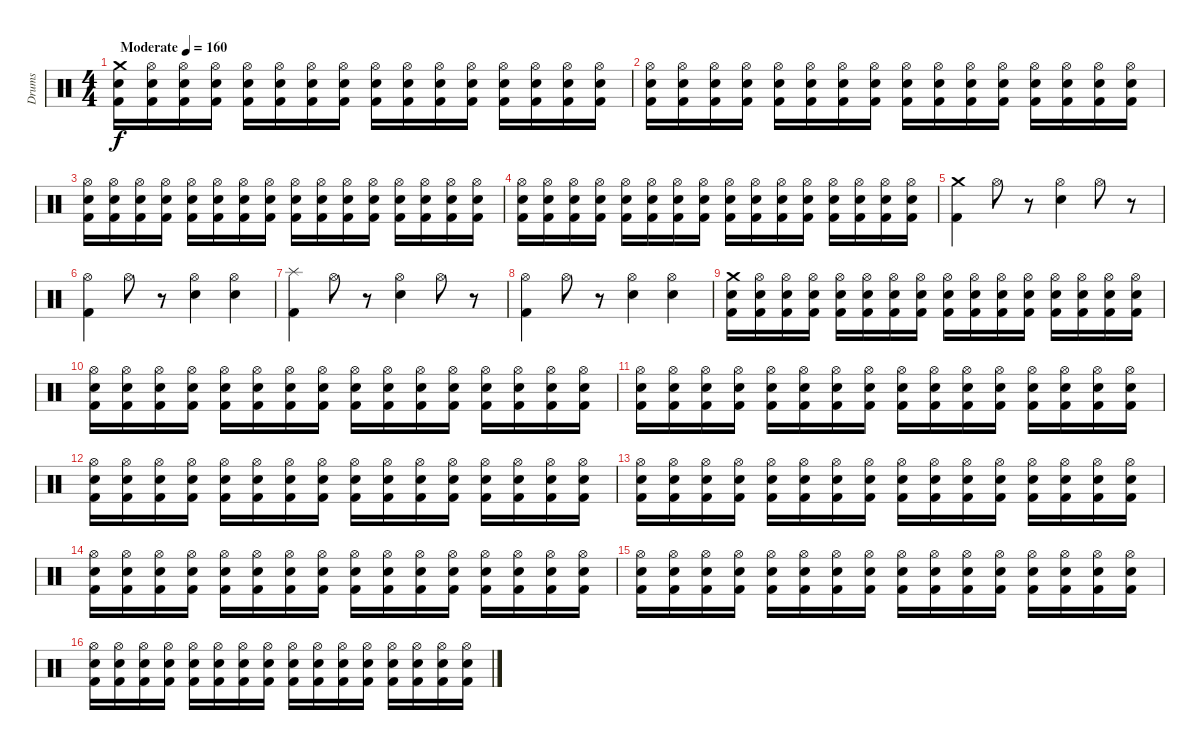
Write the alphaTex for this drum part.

\track ("Drums" "Drums") {instrument percussion}
\staff {score}
\articulation defaults
\ts (4 4)
\tempo (160 "Moderate")
\clef neutral
\ks c
("Crash medium (hit)" "Electric Snare (hit)" "Kick (hit) 2").16{dy f} ("Hi-Hat (open)" "Electric Snare (hit)" "Kick (hit) 2").16 ("Hi-Hat (open)" "Electric Snare (hit)" "Kick (hit) 2").16 ("Hi-Hat (open)" "Electric Snare (hit)" "Kick (hit) 2").16 ("Hi-Hat (open)" "Electric Snare (hit)" "Kick (hit) 2").16 ("Hi-Hat (open)" "Electric Snare (hit)" "Kick (hit) 2").16 ("Hi-Hat (open)" "Electric Snare (hit)" "Kick (hit) 2").16 ("Hi-Hat (open)" "Electric Snare (hit)" "Kick (hit) 2").16 ("Hi-Hat (open)" "Electric Snare (hit)" "Kick (hit) 2").16 ("Hi-Hat (open)" "Electric Snare (hit)" "Kick (hit) 2").16 ("Hi-Hat (open)" "Electric Snare (hit)" "Kick (hit) 2").16 ("Hi-Hat (open)" "Electric Snare (hit)" "Kick (hit) 2").16 ("Hi-Hat (open)" "Electric Snare (hit)" "Kick (hit) 2").16 ("Hi-Hat (open)" "Electric Snare (hit)" "Kick (hit) 2").16 ("Hi-Hat (open)" "Electric Snare (hit)" "Kick (hit) 2").16 ("Hi-Hat (open)" "Electric Snare (hit)" "Kick (hit) 2").16 |
("Hi-Hat (open)" "Electric Snare (hit)" "Kick (hit) 2").16 ("Hi-Hat (open)" "Electric Snare (hit)" "Kick (hit) 2").16 ("Hi-Hat (open)" "Electric Snare (hit)" "Kick (hit) 2").16 ("Hi-Hat (open)" "Electric Snare (hit)" "Kick (hit) 2").16 ("Hi-Hat (open)" "Electric Snare (hit)" "Kick (hit) 2").16 ("Hi-Hat (open)" "Electric Snare (hit)" "Kick (hit) 2").16 ("Hi-Hat (open)" "Electric Snare (hit)" "Kick (hit) 2").16 ("Hi-Hat (open)" "Electric Snare (hit)" "Kick (hit) 2").16 ("Hi-Hat (open)" "Electric Snare (hit)" "Kick (hit) 2").16 ("Hi-Hat (open)" "Electric Snare (hit)" "Kick (hit) 2").16 ("Hi-Hat (open)" "Electric Snare (hit)" "Kick (hit) 2").16 ("Hi-Hat (open)" "Electric Snare (hit)" "Kick (hit) 2").16 ("Hi-Hat (open)" "Electric Snare (hit)" "Kick (hit) 2").16 ("Hi-Hat (open)" "Electric Snare (hit)" "Kick (hit) 2").16 ("Hi-Hat (open)" "Electric Snare (hit)" "Kick (hit) 2").16 ("Hi-Hat (open)" "Electric Snare (hit)" "Kick (hit) 2").16 |
("Hi-Hat (open)" "Electric Snare (hit)" "Kick (hit) 2").16 ("Hi-Hat (open)" "Electric Snare (hit)" "Kick (hit) 2").16 ("Hi-Hat (open)" "Electric Snare (hit)" "Kick (hit) 2").16 ("Hi-Hat (open)" "Electric Snare (hit)" "Kick (hit) 2").16 ("Hi-Hat (open)" "Electric Snare (hit)" "Kick (hit) 2").16 ("Hi-Hat (open)" "Electric Snare (hit)" "Kick (hit) 2").16 ("Hi-Hat (open)" "Electric Snare (hit)" "Kick (hit) 2").16 ("Hi-Hat (open)" "Electric Snare (hit)" "Kick (hit) 2").16 ("Hi-Hat (open)" "Electric Snare (hit)" "Kick (hit) 2").16 ("Hi-Hat (open)" "Electric Snare (hit)" "Kick (hit) 2").16 ("Hi-Hat (open)" "Electric Snare (hit)" "Kick (hit) 2").16 ("Hi-Hat (open)" "Electric Snare (hit)" "Kick (hit) 2").16 ("Hi-Hat (open)" "Electric Snare (hit)" "Kick (hit) 2").16 ("Hi-Hat (open)" "Electric Snare (hit)" "Kick (hit) 2").16 ("Hi-Hat (open)" "Electric Snare (hit)" "Kick (hit) 2").16 ("Hi-Hat (open)" "Electric Snare (hit)" "Kick (hit) 2").16 |
("Hi-Hat (open)" "Electric Snare (hit)" "Kick (hit) 2").16 ("Hi-Hat (open)" "Electric Snare (hit)" "Kick (hit) 2").16 ("Hi-Hat (open)" "Electric Snare (hit)" "Kick (hit) 2").16 ("Hi-Hat (open)" "Electric Snare (hit)" "Kick (hit) 2").16 ("Hi-Hat (open)" "Electric Snare (hit)" "Kick (hit) 2").16 ("Hi-Hat (open)" "Electric Snare (hit)" "Kick (hit) 2").16 ("Hi-Hat (open)" "Electric Snare (hit)" "Kick (hit) 2").16 ("Hi-Hat (open)" "Electric Snare (hit)" "Kick (hit) 2").16 ("Hi-Hat (open)" "Electric Snare (hit)" "Kick (hit) 2").16 ("Hi-Hat (open)" "Electric Snare (hit)" "Kick (hit) 2").16 ("Hi-Hat (open)" "Electric Snare (hit)" "Kick (hit) 2").16 ("Hi-Hat (open)" "Electric Snare (hit)" "Kick (hit) 2").16 ("Hi-Hat (open)" "Electric Snare (hit)" "Kick (hit) 2").16 ("Hi-Hat (open)" "Electric Snare (hit)" "Kick (hit) 2").16 ("Hi-Hat (open)" "Electric Snare (hit)" "Kick (hit) 2").16 ("Hi-Hat (open)" "Electric Snare (hit)" "Kick (hit) 2").16 |
("Crash medium (hit)" "Kick (hit) 2").4 "Hi-Hat (open)".8 r.8 ("Hi-Hat (open)" "Electric Snare (hit)").4 "Hi-Hat (open)".8 r.8 |
("Hi-Hat (open)" "Kick (hit) 2").4 "Hi-Hat (open)".8 r.8 ("Hi-Hat (open)" "Electric Snare (hit)").4 ("Hi-Hat (open)" "Electric Snare (hit)").4 |
("Splash (hit)" "Kick (hit) 2").4 "Hi-Hat (open)".8 r.8 ("Hi-Hat (open)" "Electric Snare (hit)").4 "Hi-Hat (open)".8 r.8 |
("Hi-Hat (open)" "Kick (hit) 2").4 "Hi-Hat (open)".8 r.8 ("Hi-Hat (open)" "Electric Snare (hit)").4 ("Hi-Hat (open)" "Electric Snare (hit)").4 |
("Crash medium (hit)" "Electric Snare (hit)" "Kick (hit) 2").16 ("Hi-Hat (open)" "Electric Snare (hit)" "Kick (hit) 2").16 ("Hi-Hat (open)" "Electric Snare (hit)" "Kick (hit) 2").16 ("Hi-Hat (open)" "Electric Snare (hit)" "Kick (hit) 2").16 ("Hi-Hat (open)" "Electric Snare (hit)" "Kick (hit) 2").16 ("Hi-Hat (open)" "Electric Snare (hit)" "Kick (hit) 2").16 ("Hi-Hat (open)" "Electric Snare (hit)" "Kick (hit) 2").16 ("Hi-Hat (open)" "Electric Snare (hit)" "Kick (hit) 2").16 ("Hi-Hat (open)" "Electric Snare (hit)" "Kick (hit) 2").16 ("Hi-Hat (open)" "Electric Snare (hit)" "Kick (hit) 2").16 ("Hi-Hat (open)" "Electric Snare (hit)" "Kick (hit) 2").16 ("Hi-Hat (open)" "Electric Snare (hit)" "Kick (hit) 2").16 ("Hi-Hat (open)" "Electric Snare (hit)" "Kick (hit) 2").16 ("Hi-Hat (open)" "Electric Snare (hit)" "Kick (hit) 2").16 ("Hi-Hat (open)" "Electric Snare (hit)" "Kick (hit) 2").16 ("Hi-Hat (open)" "Electric Snare (hit)" "Kick (hit) 2").16 |
("Hi-Hat (open)" "Electric Snare (hit)" "Kick (hit) 2").16 ("Hi-Hat (open)" "Electric Snare (hit)" "Kick (hit) 2").16 ("Hi-Hat (open)" "Electric Snare (hit)" "Kick (hit) 2").16 ("Hi-Hat (open)" "Electric Snare (hit)" "Kick (hit) 2").16 ("Hi-Hat (open)" "Electric Snare (hit)" "Kick (hit) 2").16 ("Hi-Hat (open)" "Electric Snare (hit)" "Kick (hit) 2").16 ("Hi-Hat (open)" "Electric Snare (hit)" "Kick (hit) 2").16 ("Hi-Hat (open)" "Electric Snare (hit)" "Kick (hit) 2").16 ("Hi-Hat (open)" "Electric Snare (hit)" "Kick (hit) 2").16 ("Hi-Hat (open)" "Electric Snare (hit)" "Kick (hit) 2").16 ("Hi-Hat (open)" "Electric Snare (hit)" "Kick (hit) 2").16 ("Hi-Hat (open)" "Electric Snare (hit)" "Kick (hit) 2").16 ("Hi-Hat (open)" "Electric Snare (hit)" "Kick (hit) 2").16 ("Hi-Hat (open)" "Electric Snare (hit)" "Kick (hit) 2").16 ("Hi-Hat (open)" "Electric Snare (hit)" "Kick (hit) 2").16 ("Hi-Hat (open)" "Electric Snare (hit)" "Kick (hit) 2").16 |
("Hi-Hat (open)" "Electric Snare (hit)" "Kick (hit) 2").16 ("Hi-Hat (open)" "Electric Snare (hit)" "Kick (hit) 2").16 ("Hi-Hat (open)" "Electric Snare (hit)" "Kick (hit) 2").16 ("Hi-Hat (open)" "Electric Snare (hit)" "Kick (hit) 2").16 ("Hi-Hat (open)" "Electric Snare (hit)" "Kick (hit) 2").16 ("Hi-Hat (open)" "Electric Snare (hit)" "Kick (hit) 2").16 ("Hi-Hat (open)" "Electric Snare (hit)" "Kick (hit) 2").16 ("Hi-Hat (open)" "Electric Snare (hit)" "Kick (hit) 2").16 ("Hi-Hat (open)" "Electric Snare (hit)" "Kick (hit) 2").16 ("Hi-Hat (open)" "Electric Snare (hit)" "Kick (hit) 2").16 ("Hi-Hat (open)" "Electric Snare (hit)" "Kick (hit) 2").16 ("Hi-Hat (open)" "Electric Snare (hit)" "Kick (hit) 2").16 ("Hi-Hat (open)" "Electric Snare (hit)" "Kick (hit) 2").16 ("Hi-Hat (open)" "Electric Snare (hit)" "Kick (hit) 2").16 ("Hi-Hat (open)" "Electric Snare (hit)" "Kick (hit) 2").16 ("Hi-Hat (open)" "Electric Snare (hit)" "Kick (hit) 2").16 |
("Hi-Hat (open)" "Electric Snare (hit)" "Kick (hit) 2").16 ("Hi-Hat (open)" "Electric Snare (hit)" "Kick (hit) 2").16 ("Hi-Hat (open)" "Electric Snare (hit)" "Kick (hit) 2").16 ("Hi-Hat (open)" "Electric Snare (hit)" "Kick (hit) 2").16 ("Hi-Hat (open)" "Electric Snare (hit)" "Kick (hit) 2").16 ("Hi-Hat (open)" "Electric Snare (hit)" "Kick (hit) 2").16 ("Hi-Hat (open)" "Electric Snare (hit)" "Kick (hit) 2").16 ("Hi-Hat (open)" "Electric Snare (hit)" "Kick (hit) 2").16 ("Hi-Hat (open)" "Electric Snare (hit)" "Kick (hit) 2").16 ("Hi-Hat (open)" "Electric Snare (hit)" "Kick (hit) 2").16 ("Hi-Hat (open)" "Electric Snare (hit)" "Kick (hit) 2").16 ("Hi-Hat (open)" "Electric Snare (hit)" "Kick (hit) 2").16 ("Hi-Hat (open)" "Electric Snare (hit)" "Kick (hit) 2").16 ("Hi-Hat (open)" "Electric Snare (hit)" "Kick (hit) 2").16 ("Hi-Hat (open)" "Electric Snare (hit)" "Kick (hit) 2").16 ("Hi-Hat (open)" "Electric Snare (hit)" "Kick (hit) 2").16 |
("Hi-Hat (open)" "Electric Snare (hit)" "Kick (hit) 2").16 ("Hi-Hat (open)" "Electric Snare (hit)" "Kick (hit) 2").16 ("Hi-Hat (open)" "Electric Snare (hit)" "Kick (hit) 2").16 ("Hi-Hat (open)" "Electric Snare (hit)" "Kick (hit) 2").16 ("Hi-Hat (open)" "Electric Snare (hit)" "Kick (hit) 2").16 ("Hi-Hat (open)" "Electric Snare (hit)" "Kick (hit) 2").16 ("Hi-Hat (open)" "Electric Snare (hit)" "Kick (hit) 2").16 ("Hi-Hat (open)" "Electric Snare (hit)" "Kick (hit) 2").16 ("Hi-Hat (open)" "Electric Snare (hit)" "Kick (hit) 2").16 ("Hi-Hat (open)" "Electric Snare (hit)" "Kick (hit) 2").16 ("Hi-Hat (open)" "Electric Snare (hit)" "Kick (hit) 2").16 ("Hi-Hat (open)" "Electric Snare (hit)" "Kick (hit) 2").16 ("Hi-Hat (open)" "Electric Snare (hit)" "Kick (hit) 2").16 ("Hi-Hat (open)" "Electric Snare (hit)" "Kick (hit) 2").16 ("Hi-Hat (open)" "Electric Snare (hit)" "Kick (hit) 2").16 ("Hi-Hat (open)" "Electric Snare (hit)" "Kick (hit) 2").16 |
("Hi-Hat (open)" "Electric Snare (hit)" "Kick (hit) 2").16 ("Hi-Hat (open)" "Electric Snare (hit)" "Kick (hit) 2").16 ("Hi-Hat (open)" "Electric Snare (hit)" "Kick (hit) 2").16 ("Hi-Hat (open)" "Electric Snare (hit)" "Kick (hit) 2").16 ("Hi-Hat (open)" "Electric Snare (hit)" "Kick (hit) 2").16 ("Hi-Hat (open)" "Electric Snare (hit)" "Kick (hit) 2").16 ("Hi-Hat (open)" "Electric Snare (hit)" "Kick (hit) 2").16 ("Hi-Hat (open)" "Electric Snare (hit)" "Kick (hit) 2").16 ("Hi-Hat (open)" "Electric Snare (hit)" "Kick (hit) 2").16 ("Hi-Hat (open)" "Electric Snare (hit)" "Kick (hit) 2").16 ("Hi-Hat (open)" "Electric Snare (hit)" "Kick (hit) 2").16 ("Hi-Hat (open)" "Electric Snare (hit)" "Kick (hit) 2").16 ("Hi-Hat (open)" "Electric Snare (hit)" "Kick (hit) 2").16 ("Hi-Hat (open)" "Electric Snare (hit)" "Kick (hit) 2").16 ("Hi-Hat (open)" "Electric Snare (hit)" "Kick (hit) 2").16 ("Hi-Hat (open)" "Electric Snare (hit)" "Kick (hit) 2").16 |
("Hi-Hat (open)" "Electric Snare (hit)" "Kick (hit) 2").16 ("Hi-Hat (open)" "Electric Snare (hit)" "Kick (hit) 2").16 ("Hi-Hat (open)" "Electric Snare (hit)" "Kick (hit) 2").16 ("Hi-Hat (open)" "Electric Snare (hit)" "Kick (hit) 2").16 ("Hi-Hat (open)" "Electric Snare (hit)" "Kick (hit) 2").16 ("Hi-Hat (open)" "Electric Snare (hit)" "Kick (hit) 2").16 ("Hi-Hat (open)" "Electric Snare (hit)" "Kick (hit) 2").16 ("Hi-Hat (open)" "Electric Snare (hit)" "Kick (hit) 2").16 ("Hi-Hat (open)" "Electric Snare (hit)" "Kick (hit) 2").16 ("Hi-Hat (open)" "Electric Snare (hit)" "Kick (hit) 2").16 ("Hi-Hat (open)" "Electric Snare (hit)" "Kick (hit) 2").16 ("Hi-Hat (open)" "Electric Snare (hit)" "Kick (hit) 2").16 ("Hi-Hat (open)" "Electric Snare (hit)" "Kick (hit) 2").16 ("Hi-Hat (open)" "Electric Snare (hit)" "Kick (hit) 2").16 ("Hi-Hat (open)" "Electric Snare (hit)" "Kick (hit) 2").16 ("Hi-Hat (open)" "Electric Snare (hit)" "Kick (hit) 2").16 |
("Hi-Hat (open)" "Electric Snare (hit)" "Kick (hit) 2").16 ("Hi-Hat (open)" "Electric Snare (hit)" "Kick (hit) 2").16 ("Hi-Hat (open)" "Electric Snare (hit)" "Kick (hit) 2").16 ("Hi-Hat (open)" "Electric Snare (hit)" "Kick (hit) 2").16 ("Hi-Hat (open)" "Electric Snare (hit)" "Kick (hit) 2").16 ("Hi-Hat (open)" "Electric Snare (hit)" "Kick (hit) 2").16 ("Hi-Hat (open)" "Electric Snare (hit)" "Kick (hit) 2").16 ("Hi-Hat (open)" "Electric Snare (hit)" "Kick (hit) 2").16 ("Hi-Hat (open)" "Electric Snare (hit)" "Kick (hit) 2").16 ("Hi-Hat (open)" "Electric Snare (hit)" "Kick (hit) 2").16 ("Hi-Hat (open)" "Electric Snare (hit)" "Kick (hit) 2").16 ("Hi-Hat (open)" "Electric Snare (hit)" "Kick (hit) 2").16 ("Hi-Hat (open)" "Electric Snare (hit)" "Kick (hit) 2").16 ("Hi-Hat (open)" "Electric Snare (hit)" "Kick (hit) 2").16 ("Hi-Hat (open)" "Electric Snare (hit)" "Kick (hit) 2").16 ("Hi-Hat (open)" "Electric Snare (hit)" "Kick (hit) 2").16
